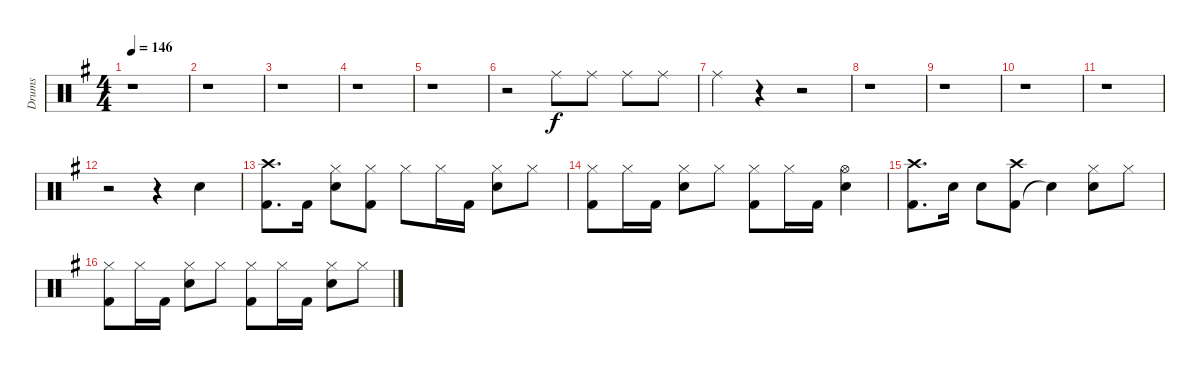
\track ("Drums" "Drums") {instrument percussion}
\staff {score}
\articulation defaults
\ts (4 4)
\tempo 146
\clef neutral
\ks g
r.1{dy f} |
r.1 |
r.1 |
r.1 |
r.1 |
r.2 "Ride (middle)".8 "Ride (middle)".8 "Ride (middle)".8 "Ride (middle)".8 |
"Ride (middle)".4 r.4 r.2 |
r.1 |
r.1 |
r.1 |
r.1 |
r.2 r.4 "Snare (hit) 2".4 |
("Kick (hit) 2" "Crash high (hit)").8{d} "Kick (hit) 2".16 ("Snare (hit) 2" "Hi-Hat (closed)").8 ("Kick (hit) 2" "Hi-Hat (closed)").8 "Hi-Hat (closed)".8 "Hi-Hat (closed)".16 "Kick (hit) 2".16 ("Snare (hit) 2" "Hi-Hat (closed)").8 "Hi-Hat (closed)".8 |
("Kick (hit) 2" "Hi-Hat (closed)").8 "Hi-Hat (closed)".16 "Kick (hit) 2".16 ("Snare (hit) 2" "Hi-Hat (closed)").8 "Hi-Hat (closed)".8 ("Kick (hit) 2" "Hi-Hat (closed)").8 "Hi-Hat (closed)".16 "Kick (hit) 2".16 ("Snare (hit) 2" "Hi-Hat (open)").4 |
("Kick (hit) 2" "Crash high (hit)").8{d} "Snare (hit) 2".16 "Snare (hit) 2".8 ("Kick (hit) 2" "Crash high (hit)").8 "Snare (hit)"{t}.4 ("Snare (hit) 2" "Hi-Hat (closed)").8 "Hi-Hat (closed)".8 |
("Kick (hit) 2" "Hi-Hat (closed)").8 "Hi-Hat (closed)".16 "Kick (hit) 2".16 ("Snare (hit) 2" "Hi-Hat (closed)").8 "Hi-Hat (closed)".8 ("Kick (hit) 2" "Hi-Hat (closed)").8 "Hi-Hat (closed)".16 "Kick (hit) 2".16 ("Snare (hit) 2" "Hi-Hat (closed)").8 "Hi-Hat (closed)".8
